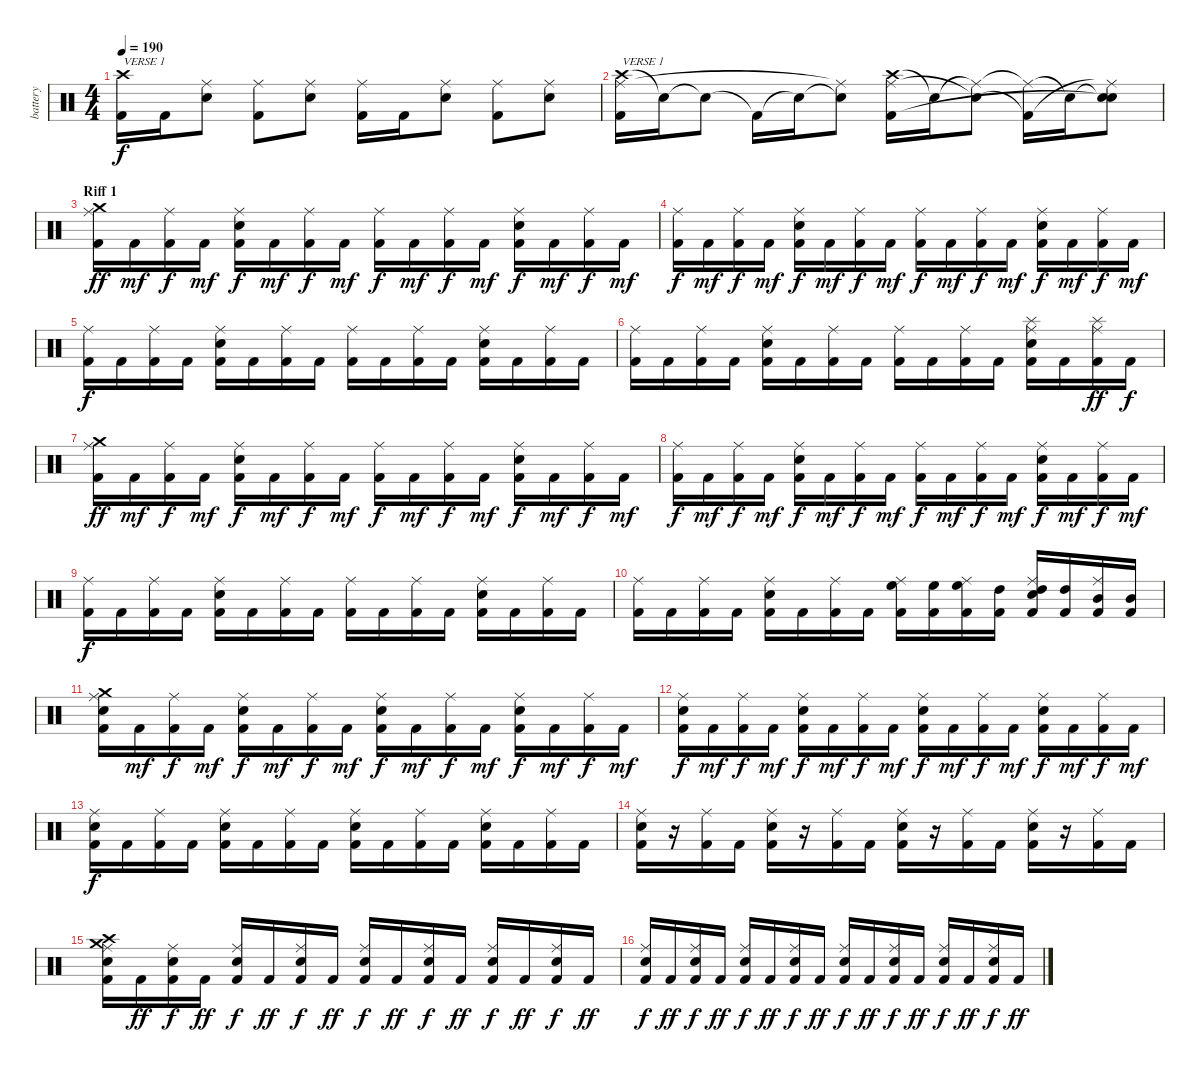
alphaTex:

\track ("battery" "battery") {instrument percussion}
\staff {score}
\articulation defaults
\ts (4 4)
\tempo 190
\clef neutral
\ks c
("Crash high (hit)" "Kick (hit) 2").16{txt "VERSE 1" dy f} "Kick (hit) 2".16 ("Ride (middle)" "Electric Snare (hit)").8 ("Ride (middle)" "Kick (hit) 2").8 ("Ride (middle)" "Electric Snare (hit)").8 ("Ride (middle)" "Kick (hit) 2").16 "Kick (hit) 2".16 ("Ride (middle)" "Electric Snare (hit)").8 ("Ride (middle)" "Kick (hit) 2").8 ("Ride (middle)" "Electric Snare (hit)").8 |
("Crash high (hit)" "Ride (middle)" "Kick (hit) 2").16{txt "VERSE 1"} "Snare (hit)"{t}.16 "Snare (hit)"{t}.8 "Kick (hit) 2"{t}.16 "Snare (hit)"{t}.16 ("Snare (hit)"{t} "Ride (middle)"{t}).8 ("Crash high (hit)" "Ride (middle)" "Kick (hit) 2").16 "Snare (hit)"{t}.16 ("Ride (middle)"{t} "Snare (hit)"{t}).8 ("Ride (middle)"{t} "Kick (hit) 2"{t}).16 "Snare (hit)"{t}.16 ("Snare (hit)"{t} "Ride (middle)"{t} "Snare (hit)"{t}).8 |
\section ("" "Riff 1")
("Kick (hit) 2" "Crash medium (hit)" "Ride (middle)").16{dy ff} "Kick (hit) 2".16{dy mf} ("Kick (hit) 2" "Ride (middle)").16{dy f} "Kick (hit) 2".16{dy mf} ("Kick (hit) 2" "Electric Snare (hit)" "Ride (middle)").16{dy f} "Kick (hit) 2".16{dy mf} ("Kick (hit) 2" "Ride (middle)").16{dy f} "Kick (hit) 2".16{dy mf} ("Kick (hit) 2" "Ride (middle)").16{dy f} "Kick (hit) 2".16{dy mf} ("Kick (hit) 2" "Ride (middle)").16{dy f} "Kick (hit) 2".16{dy mf} ("Kick (hit) 2" "Electric Snare (hit)" "Ride (middle)").16{dy f} "Kick (hit) 2".16{dy mf} ("Kick (hit) 2" "Ride (middle)").16{dy f} "Kick (hit) 2".16{dy mf} |
("Kick (hit) 2" "Ride (middle)").16{dy f} "Kick (hit) 2".16{dy mf} ("Kick (hit) 2" "Ride (middle)").16{dy f} "Kick (hit) 2".16{dy mf} ("Kick (hit) 2" "Electric Snare (hit)" "Ride (middle)").16{dy f} "Kick (hit) 2".16{dy mf} ("Kick (hit) 2" "Ride (middle)").16{dy f} "Kick (hit) 2".16{dy mf} ("Kick (hit) 2" "Ride (middle)").16{dy f} "Kick (hit) 2".16{dy mf} ("Kick (hit) 2" "Ride (middle)").16{dy f} "Kick (hit) 2".16{dy mf} ("Kick (hit) 2" "Electric Snare (hit)" "Ride (middle)").16{dy f} "Kick (hit) 2".16{dy mf} ("Kick (hit) 2" "Ride (middle)").16{dy f} "Kick (hit) 2".16{dy mf} |
("Kick (hit) 2" "Ride (middle)").16{dy f} "Kick (hit) 2".16 ("Kick (hit) 2" "Ride (middle)").16 "Kick (hit) 2".16 ("Kick (hit) 2" "Electric Snare (hit)" "Ride (middle)").16 "Kick (hit) 2".16 ("Kick (hit) 2" "Ride (middle)").16 "Kick (hit) 2".16 ("Kick (hit) 2" "Ride (middle)").16 "Kick (hit) 2".16 ("Kick (hit) 2" "Ride (middle)").16 "Kick (hit) 2".16 ("Kick (hit) 2" "Electric Snare (hit)" "Ride (middle)").16 "Kick (hit) 2".16 ("Kick (hit) 2" "Ride (middle)").16 "Kick (hit) 2".16 |
("Kick (hit) 2" "Ride (middle)").16 "Kick (hit) 2".16 ("Kick (hit) 2" "Ride (middle)").16 "Kick (hit) 2".16 ("Kick (hit) 2" "Electric Snare (hit)" "Ride (middle)").16 "Kick (hit) 2".16 ("Kick (hit) 2" "Ride (middle)").16 "Kick (hit) 2".16 ("Kick (hit) 2" "Ride (middle)").16 "Kick (hit) 2".16 ("Kick (hit) 2" "Ride (middle)").16 "Kick (hit) 2".16 ("Kick (hit) 2" "Electric Snare (hit)" "Ride (middle)" "Splash (hit)").16 "Kick (hit) 2".16 ("Kick (hit) 2" "Ride (middle)" "Splash (hit)").16{dy ff} "Kick (hit) 2".16{dy f} |
("Kick (hit) 2" "Crash medium (hit)" "Ride (middle)").16{dy ff} "Kick (hit) 2".16{dy mf} ("Kick (hit) 2" "Ride (middle)").16{dy f} "Kick (hit) 2".16{dy mf} ("Kick (hit) 2" "Electric Snare (hit)" "Ride (middle)").16{dy f} "Kick (hit) 2".16{dy mf} ("Kick (hit) 2" "Ride (middle)").16{dy f} "Kick (hit) 2".16{dy mf} ("Kick (hit) 2" "Ride (middle)").16{dy f} "Kick (hit) 2".16{dy mf} ("Kick (hit) 2" "Ride (middle)").16{dy f} "Kick (hit) 2".16{dy mf} ("Kick (hit) 2" "Electric Snare (hit)" "Ride (middle)").16{dy f} "Kick (hit) 2".16{dy mf} ("Kick (hit) 2" "Ride (middle)").16{dy f} "Kick (hit) 2".16{dy mf} |
("Kick (hit) 2" "Ride (middle)").16{dy f} "Kick (hit) 2".16{dy mf} ("Kick (hit) 2" "Ride (middle)").16{dy f} "Kick (hit) 2".16{dy mf} ("Kick (hit) 2" "Electric Snare (hit)" "Ride (middle)").16{dy f} "Kick (hit) 2".16{dy mf} ("Kick (hit) 2" "Ride (middle)").16{dy f} "Kick (hit) 2".16{dy mf} ("Kick (hit) 2" "Ride (middle)").16{dy f} "Kick (hit) 2".16{dy mf} ("Kick (hit) 2" "Ride (middle)").16{dy f} "Kick (hit) 2".16{dy mf} ("Kick (hit) 2" "Electric Snare (hit)" "Ride (middle)").16{dy f} "Kick (hit) 2".16{dy mf} ("Kick (hit) 2" "Ride (middle)").16{dy f} "Kick (hit) 2".16{dy mf} |
("Kick (hit) 2" "Ride (middle)").16{dy f} "Kick (hit) 2".16 ("Kick (hit) 2" "Ride (middle)").16 "Kick (hit) 2".16 ("Kick (hit) 2" "Electric Snare (hit)" "Ride (middle)").16 "Kick (hit) 2".16 ("Kick (hit) 2" "Ride (middle)").16 "Kick (hit) 2".16 ("Kick (hit) 2" "Ride (middle)").16 "Kick (hit) 2".16 ("Kick (hit) 2" "Ride (middle)").16 "Kick (hit) 2".16 ("Kick (hit) 2" "Electric Snare (hit)" "Ride (middle)").16 "Kick (hit) 2".16 ("Kick (hit) 2" "Ride (middle)").16 "Kick (hit) 2".16 |
("Kick (hit) 2" "Ride (middle)").16 "Kick (hit) 2".16 ("Kick (hit) 2" "Ride (middle)").16 "Kick (hit) 2".16 ("Kick (hit) 2" "Electric Snare (hit)" "Ride (middle)").16 "Kick (hit) 2".16 ("Kick (hit) 2" "Ride (middle)").16 "Kick (hit) 2".16 ("Kick (hit) 2" "Ride (middle)" "High Floor Tom (hit)").16 ("Kick (hit) 2" "High Floor Tom (hit)").16 ("Kick (hit) 2" "Ride (middle)" "High Floor Tom (hit)").16 ("Kick (hit) 2" "High Tom (hit)").16 ("Kick (hit) 2" "Electric Snare (hit)" "Ride (middle)" "High Tom (hit)").16 ("Kick (hit) 2" "High Tom (hit)").16 ("Kick (hit) 2" "Ride (middle)" "Mid Tom (hit)").16 ("Kick (hit) 2" "Mid Tom (hit)").16 |
("Kick (hit) 2" "Electric Snare (hit)" "Crash medium (hit)" "Ride (middle)").16 "Kick (hit) 2".16{dy mf} ("Kick (hit) 2" "Ride (middle)").16{dy f} "Kick (hit) 2".16{dy mf} ("Kick (hit) 2" "Electric Snare (hit)" "Ride (middle)").16{dy f} "Kick (hit) 2".16{dy mf} ("Kick (hit) 2" "Ride (middle)").16{dy f} "Kick (hit) 2".16{dy mf} ("Kick (hit) 2" "Electric Snare (hit)" "Ride (middle)").16{dy f} "Kick (hit) 2".16{dy mf} ("Kick (hit) 2" "Ride (middle)").16{dy f} "Kick (hit) 2".16{dy mf} ("Kick (hit) 2" "Electric Snare (hit)" "Ride (middle)").16{dy f} "Kick (hit) 2".16{dy mf} ("Kick (hit) 2" "Ride (middle)").16{dy f} "Kick (hit) 2".16{dy mf} |
("Kick (hit) 2" "Electric Snare (hit)" "Ride (middle)").16{dy f} "Kick (hit) 2".16{dy mf} ("Kick (hit) 2" "Ride (middle)").16{dy f} "Kick (hit) 2".16{dy mf} ("Kick (hit) 2" "Electric Snare (hit)" "Ride (middle)").16{dy f} "Kick (hit) 2".16{dy mf} ("Kick (hit) 2" "Ride (middle)").16{dy f} "Kick (hit) 2".16{dy mf} ("Kick (hit) 2" "Electric Snare (hit)" "Ride (middle)").16{dy f} "Kick (hit) 2".16{dy mf} ("Kick (hit) 2" "Ride (middle)").16{dy f} "Kick (hit) 2".16{dy mf} ("Kick (hit) 2" "Electric Snare (hit)" "Ride (middle)").16{dy f} "Kick (hit) 2".16{dy mf} ("Kick (hit) 2" "Ride (middle)").16{dy f} "Kick (hit) 2".16{dy mf} |
("Kick (hit) 2" "Electric Snare (hit)" "Ride (middle)").16{dy f} "Kick (hit) 2".16 ("Kick (hit) 2" "Ride (middle)").16 "Kick (hit) 2".16 ("Kick (hit) 2" "Electric Snare (hit)" "Ride (middle)").16 "Kick (hit) 2".16 ("Kick (hit) 2" "Ride (middle)").16 "Kick (hit) 2".16 ("Kick (hit) 2" "Electric Snare (hit)" "Ride (middle)").16 "Kick (hit) 2".16 ("Kick (hit) 2" "Ride (middle)").16 "Kick (hit) 2".16 ("Kick (hit) 2" "Electric Snare (hit)" "Ride (middle)").16 "Kick (hit) 2".16 ("Kick (hit) 2" "Ride (middle)").16 "Kick (hit) 2".16 |
("Kick (hit) 2" "Electric Snare (hit)" "Ride (middle)").16 r.16 ("Kick (hit) 2" "Ride (middle)").16 "Kick (hit) 2".16 ("Kick (hit) 2" "Electric Snare (hit)" "Ride (middle)").16 r.16 ("Kick (hit) 2" "Ride (middle)").16 "Kick (hit) 2".16 ("Kick (hit) 2" "Electric Snare (hit)" "Ride (middle)").16 r.16 ("Kick (hit) 2" "Ride (middle)").16 "Kick (hit) 2".16 ("Kick (hit) 2" "Electric Snare (hit)" "Ride (middle)").16 r.16 ("Kick (hit) 2" "Ride (middle)").16 "Kick (hit) 2".16 |
("Kick (hit) 2" "Electric Snare (hit)" "Crash medium (hit)" "Crash high (hit)" "Ride (middle)").16 "Kick (hit) 2".16{dy ff} ("Kick (hit) 2" "Electric Snare (hit)" "Ride (middle)").16{dy f} "Kick (hit) 2".16{dy ff} ("Kick (hit) 2" "Electric Snare (hit)" "Ride (middle)").16{dy f} "Kick (hit) 2".16{dy ff} ("Kick (hit) 2" "Electric Snare (hit)" "Ride (middle)").16{dy f} "Kick (hit) 2".16{dy ff} ("Kick (hit) 2" "Electric Snare (hit)" "Ride (middle)").16{dy f} "Kick (hit) 2".16{dy ff} ("Kick (hit) 2" "Electric Snare (hit)" "Ride (middle)").16{dy f} "Kick (hit) 2".16{dy ff} ("Kick (hit) 2" "Electric Snare (hit)" "Ride (middle)").16{dy f} "Kick (hit) 2".16{dy ff} ("Kick (hit) 2" "Electric Snare (hit)" "Ride (middle)").16{dy f} "Kick (hit) 2".16{dy ff} |
("Kick (hit) 2" "Electric Snare (hit)" "Ride (middle)").16{dy f} "Kick (hit) 2".16{dy ff} ("Kick (hit) 2" "Electric Snare (hit)" "Ride (middle)").16{dy f} "Kick (hit) 2".16{dy ff} ("Kick (hit) 2" "Electric Snare (hit)" "Ride (middle)").16{dy f} "Kick (hit) 2".16{dy ff} ("Kick (hit) 2" "Electric Snare (hit)" "Ride (middle)").16{dy f} "Kick (hit) 2".16{dy ff} ("Kick (hit) 2" "Electric Snare (hit)" "Ride (middle)").16{dy f} "Kick (hit) 2".16{dy ff} ("Kick (hit) 2" "Electric Snare (hit)" "Ride (middle)").16{dy f} "Kick (hit) 2".16{dy ff} ("Kick (hit) 2" "Electric Snare (hit)" "Ride (middle)").16{dy f} "Kick (hit) 2".16{dy ff} ("Kick (hit) 2" "Electric Snare (hit)" "Ride (middle)").16{dy f} "Kick (hit) 2".16{dy ff}
